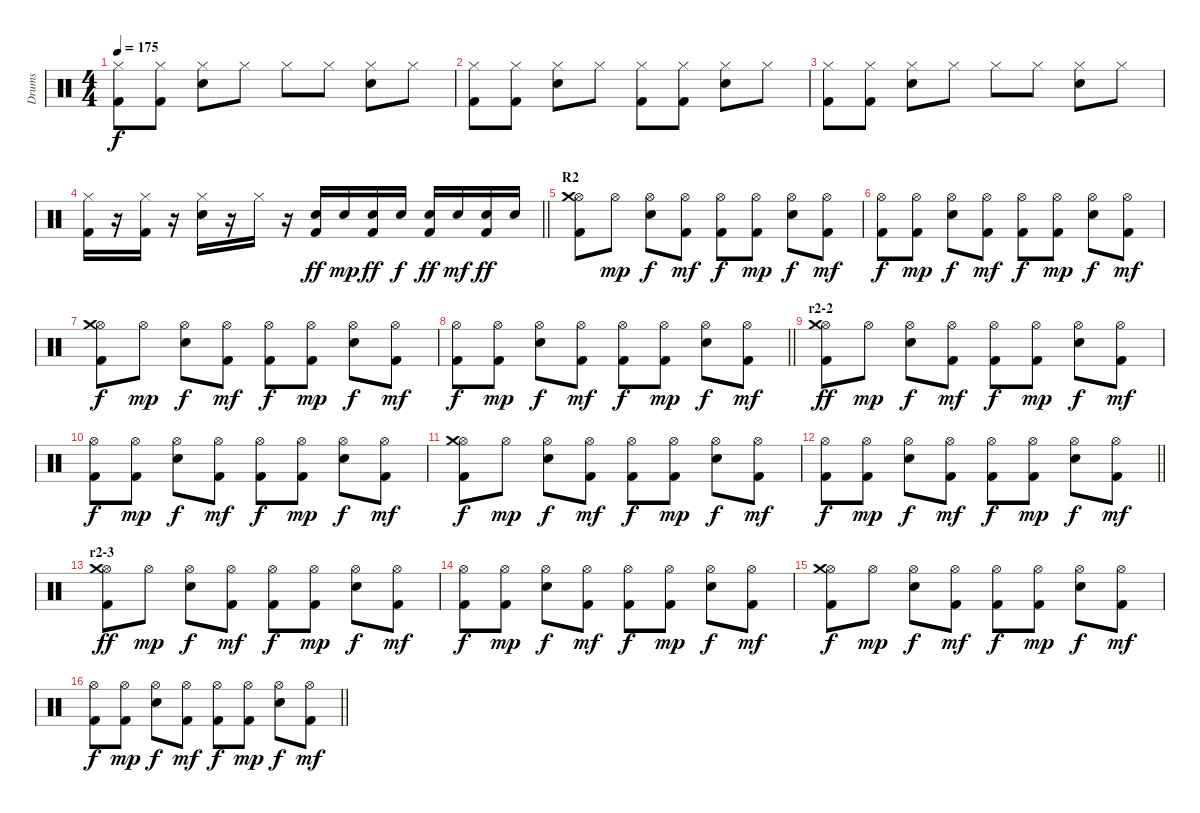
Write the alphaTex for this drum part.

\track ("Drums" "Drums") {instrument percussion}
\staff {score}
\articulation defaults
\ts (4 4)
\tempo 175
\clef neutral
\ks c
("Hi-Hat (closed)" "Kick (hit) 2").8{dy f} ("Hi-Hat (closed)" "Kick (hit) 2").8 ("Hi-Hat (closed)" "Electric Snare (hit)").8 "Hi-Hat (closed)".8 "Hi-Hat (closed)".8 "Hi-Hat (closed)".8 ("Hi-Hat (closed)" "Electric Snare (hit)").8 "Hi-Hat (closed)".8 |
("Hi-Hat (closed)" "Kick (hit) 2").8 ("Hi-Hat (closed)" "Kick (hit) 2").8 ("Hi-Hat (closed)" "Electric Snare (hit)").8 "Hi-Hat (closed)".8 ("Hi-Hat (closed)" "Kick (hit) 2").8 ("Hi-Hat (closed)" "Kick (hit) 2").8 ("Hi-Hat (closed)" "Electric Snare (hit)").8 "Hi-Hat (closed)".8 |
("Hi-Hat (closed)" "Kick (hit) 2").8 ("Hi-Hat (closed)" "Kick (hit) 2").8 ("Hi-Hat (closed)" "Electric Snare (hit)").8 "Hi-Hat (closed)".8 "Hi-Hat (closed)".8 "Hi-Hat (closed)".8 ("Hi-Hat (closed)" "Electric Snare (hit)").8 "Hi-Hat (closed)".8 |
\barLineRight lightlight
("Hi-Hat (closed)" "Kick (hit) 2").16 r.16 ("Hi-Hat (closed)" "Kick (hit) 2").16 r.16 ("Hi-Hat (closed)" "Electric Snare (hit)").16 r.16 "Hi-Hat (closed)".16 r.16 ("Electric Snare (hit)" "Kick (hit) 2").16{dy ff} "Electric Snare (hit)".16{dy mp} ("Electric Snare (hit)" "Kick (hit) 2").16{dy ff} "Electric Snare (hit)".16{dy f} ("Electric Snare (hit)" "Kick (hit) 2").16{dy ff} "Electric Snare (hit)".16{dy mf} ("Electric Snare (hit)" "Kick (hit) 2").16{dy ff} "Electric Snare (hit)".16 |
\section ("" "R2")
("Hi-Hat (open)" "Crash medium (hit)" "Kick (hit) 2").8 "Hi-Hat (open)".8{dy mp} ("Hi-Hat (open)" "Electric Snare (hit)").8{dy f} ("Hi-Hat (open)" "Kick (hit) 2").8{dy mf} ("Hi-Hat (open)" "Kick (hit) 2").8{dy f} ("Hi-Hat (open)" "Kick (hit) 2").8{dy mp} ("Hi-Hat (open)" "Electric Snare (hit)").8{dy f} ("Hi-Hat (open)" "Kick (hit) 2").8{dy mf} |
("Hi-Hat (open)" "Kick (hit) 2").8{dy f} ("Hi-Hat (open)" "Kick (hit) 2").8{dy mp} ("Hi-Hat (open)" "Electric Snare (hit)").8{dy f} ("Hi-Hat (open)" "Kick (hit) 2").8{dy mf} ("Hi-Hat (open)" "Kick (hit) 2").8{dy f} ("Hi-Hat (open)" "Kick (hit) 2").8{dy mp} ("Hi-Hat (open)" "Electric Snare (hit)").8{dy f} ("Hi-Hat (open)" "Kick (hit) 2").8{dy mf} |
("Hi-Hat (open)" "Crash medium (hit)" "Kick (hit) 2").8{dy f} "Hi-Hat (open)".8{dy mp} ("Hi-Hat (open)" "Electric Snare (hit)").8{dy f} ("Hi-Hat (open)" "Kick (hit) 2").8{dy mf} ("Hi-Hat (open)" "Kick (hit) 2").8{dy f} ("Hi-Hat (open)" "Kick (hit) 2").8{dy mp} ("Hi-Hat (open)" "Electric Snare (hit)").8{dy f} ("Hi-Hat (open)" "Kick (hit) 2").8{dy mf} |
\barLineRight lightlight
("Hi-Hat (open)" "Kick (hit) 2").8{dy f} ("Hi-Hat (open)" "Kick (hit) 2").8{dy mp} ("Hi-Hat (open)" "Electric Snare (hit)").8{dy f} ("Hi-Hat (open)" "Kick (hit) 2").8{dy mf} ("Hi-Hat (open)" "Kick (hit) 2").8{dy f} ("Hi-Hat (open)" "Kick (hit) 2").8{dy mp} ("Hi-Hat (open)" "Electric Snare (hit)").8{dy f} ("Hi-Hat (open)" "Kick (hit) 2").8{dy mf} |
\section ("" "r2-2")
("Hi-Hat (open)" "Crash medium (hit)" "Kick (hit) 2").8{dy ff} "Hi-Hat (open)".8{dy mp} ("Hi-Hat (open)" "Electric Snare (hit)").8{dy f} ("Hi-Hat (open)" "Kick (hit) 2").8{dy mf} ("Hi-Hat (open)" "Kick (hit) 2").8{dy f} ("Hi-Hat (open)" "Kick (hit) 2").8{dy mp} ("Hi-Hat (open)" "Electric Snare (hit)").8{dy f} ("Hi-Hat (open)" "Kick (hit) 2").8{dy mf} |
("Hi-Hat (open)" "Kick (hit) 2").8{dy f} ("Hi-Hat (open)" "Kick (hit) 2").8{dy mp} ("Hi-Hat (open)" "Electric Snare (hit)").8{dy f} ("Hi-Hat (open)" "Kick (hit) 2").8{dy mf} ("Hi-Hat (open)" "Kick (hit) 2").8{dy f} ("Hi-Hat (open)" "Kick (hit) 2").8{dy mp} ("Hi-Hat (open)" "Electric Snare (hit)").8{dy f} ("Hi-Hat (open)" "Kick (hit) 2").8{dy mf} |
("Hi-Hat (open)" "Crash medium (hit)" "Kick (hit) 2").8{dy f} "Hi-Hat (open)".8{dy mp} ("Hi-Hat (open)" "Electric Snare (hit)").8{dy f} ("Hi-Hat (open)" "Kick (hit) 2").8{dy mf} ("Hi-Hat (open)" "Kick (hit) 2").8{dy f} ("Hi-Hat (open)" "Kick (hit) 2").8{dy mp} ("Hi-Hat (open)" "Electric Snare (hit)").8{dy f} ("Hi-Hat (open)" "Kick (hit) 2").8{dy mf} |
\barLineRight lightlight
("Hi-Hat (open)" "Kick (hit) 2").8{dy f} ("Hi-Hat (open)" "Kick (hit) 2").8{dy mp} ("Hi-Hat (open)" "Electric Snare (hit)").8{dy f} ("Hi-Hat (open)" "Kick (hit) 2").8{dy mf} ("Hi-Hat (open)" "Kick (hit) 2").8{dy f} ("Hi-Hat (open)" "Kick (hit) 2").8{dy mp} ("Hi-Hat (open)" "Electric Snare (hit)").8{dy f} ("Hi-Hat (open)" "Kick (hit) 2").8{dy mf} |
\section ("" "r2-3")
("Hi-Hat (open)" "Crash medium (hit)" "Kick (hit) 2").8{dy ff} "Hi-Hat (open)".8{dy mp} ("Hi-Hat (open)" "Electric Snare (hit)").8{dy f} ("Hi-Hat (open)" "Kick (hit) 2").8{dy mf} ("Hi-Hat (open)" "Kick (hit) 2").8{dy f} ("Hi-Hat (open)" "Kick (hit) 2").8{dy mp} ("Hi-Hat (open)" "Electric Snare (hit)").8{dy f} ("Hi-Hat (open)" "Kick (hit) 2").8{dy mf} |
("Hi-Hat (open)" "Kick (hit) 2").8{dy f} ("Hi-Hat (open)" "Kick (hit) 2").8{dy mp} ("Hi-Hat (open)" "Electric Snare (hit)").8{dy f} ("Hi-Hat (open)" "Kick (hit) 2").8{dy mf} ("Hi-Hat (open)" "Kick (hit) 2").8{dy f} ("Hi-Hat (open)" "Kick (hit) 2").8{dy mp} ("Hi-Hat (open)" "Electric Snare (hit)").8{dy f} ("Hi-Hat (open)" "Kick (hit) 2").8{dy mf} |
("Hi-Hat (open)" "Crash medium (hit)" "Kick (hit) 2").8{dy f} "Hi-Hat (open)".8{dy mp} ("Hi-Hat (open)" "Electric Snare (hit)").8{dy f} ("Hi-Hat (open)" "Kick (hit) 2").8{dy mf} ("Hi-Hat (open)" "Kick (hit) 2").8{dy f} ("Hi-Hat (open)" "Kick (hit) 2").8{dy mp} ("Hi-Hat (open)" "Electric Snare (hit)").8{dy f} ("Hi-Hat (open)" "Kick (hit) 2").8{dy mf} |
\barLineRight lightlight
("Hi-Hat (open)" "Kick (hit) 2").8{dy f} ("Hi-Hat (open)" "Kick (hit) 2").8{dy mp} ("Hi-Hat (open)" "Electric Snare (hit)").8{dy f} ("Hi-Hat (open)" "Kick (hit) 2").8{dy mf} ("Hi-Hat (open)" "Kick (hit) 2").8{dy f} ("Hi-Hat (open)" "Kick (hit) 2").8{dy mp} ("Hi-Hat (open)" "Electric Snare (hit)").8{dy f} ("Hi-Hat (open)" "Kick (hit) 2").8{dy mf}
